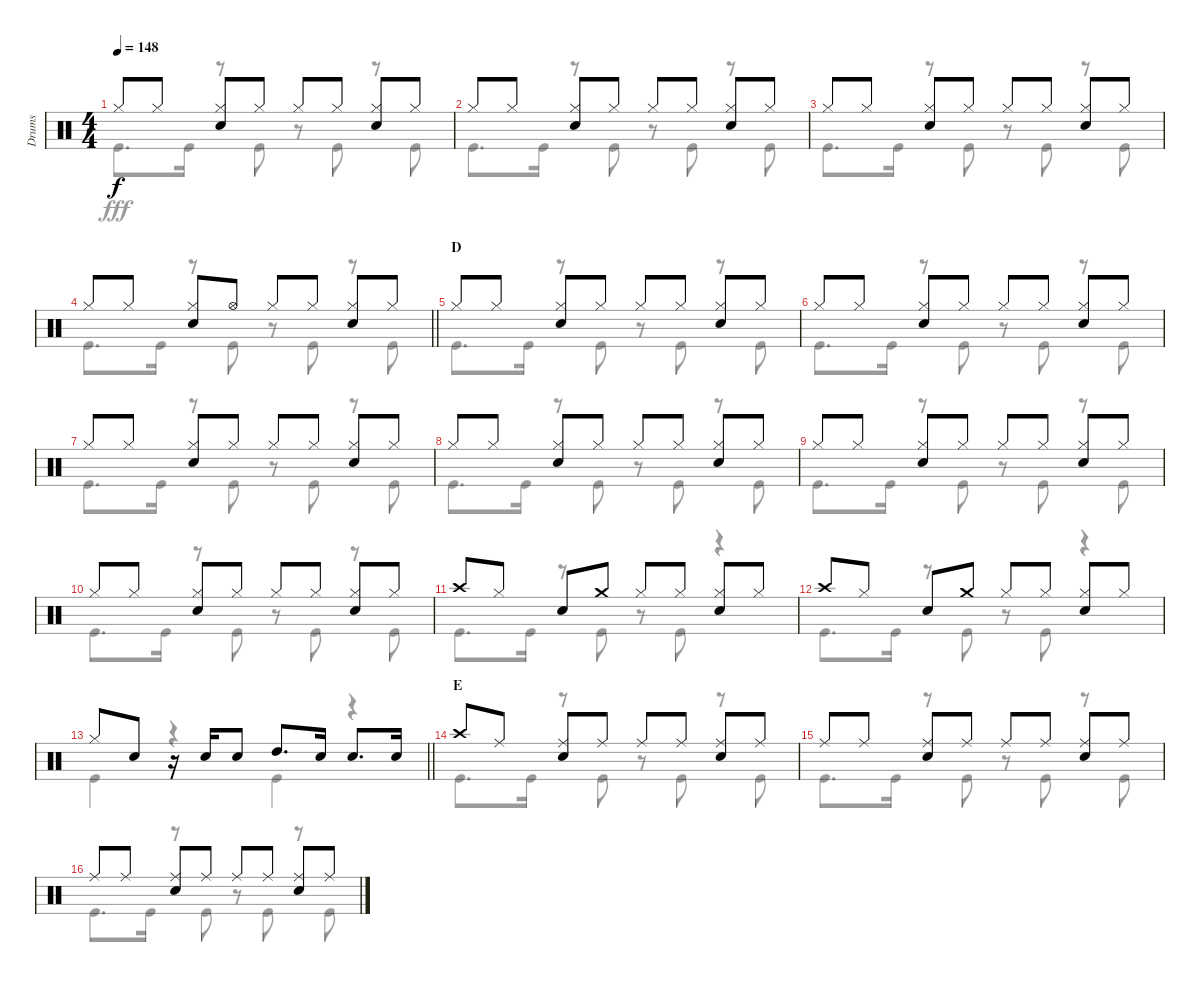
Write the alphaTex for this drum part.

\track ("Drums" "Drums") {instrument percussion}
\staff {score}
\articulation defaults
\voice
\ts (4 4)
\tempo 148
\clef neutral
\ks c "Hi-Hat (closed)".8{dy f} "Hi-Hat (closed)".8
("Hi-Hat (closed)" "Snare (hit) 2").8 "Hi-Hat (closed)".8 "Hi-Hat (closed)".8 "Hi-Hat (closed)".8 ("Hi-Hat (closed)" "Snare (hit) 2").8 "Hi-Hat (closed)".8 |
"Hi-Hat (closed)".8 "Hi-Hat (closed)".8 ("Hi-Hat (closed)" "Snare (hit) 2").8 "Hi-Hat (closed)".8 "Hi-Hat (closed)".8 "Hi-Hat (closed)".8 ("Hi-Hat (closed)" "Snare (hit) 2").8 "Hi-Hat (closed)".8 |
"Hi-Hat (closed)".8 "Hi-Hat (closed)".8 ("Hi-Hat (closed)" "Snare (hit) 2").8 "Hi-Hat (closed)".8 "Hi-Hat (closed)".8 "Hi-Hat (closed)".8 ("Hi-Hat (closed)" "Snare (hit) 2").8 "Hi-Hat (closed)".8 |
\barLineRight lightlight "Hi-Hat (closed)".8 "Hi-Hat (closed)".8
("Hi-Hat (closed)" "Snare (hit) 2").8 "Hi-Hat (open)".8 "Hi-Hat (closed)".8 "Hi-Hat (closed)".8 ("Hi-Hat (closed)" "Snare (hit) 2").8 "Hi-Hat (closed)".8 |
\section ("" "D")
"Hi-Hat (closed)".8 "Hi-Hat (closed)".8 ("Hi-Hat (closed)" "Snare (hit) 2").8 "Hi-Hat (closed)".8 "Hi-Hat (closed)".8 "Hi-Hat (closed)".8 ("Hi-Hat (closed)" "Snare (hit) 2").8 "Hi-Hat (closed)".8 |
"Hi-Hat (closed)".8 "Hi-Hat (closed)".8 ("Hi-Hat (closed)" "Snare (hit) 2").8 "Hi-Hat (closed)".8 "Hi-Hat (closed)".8 "Hi-Hat (closed)".8 ("Hi-Hat (closed)" "Snare (hit) 2").8 "Hi-Hat (closed)".8 |
"Hi-Hat (closed)".8 "Hi-Hat (closed)".8 ("Hi-Hat (closed)" "Snare (hit) 2").8 "Hi-Hat (closed)".8 "Hi-Hat (closed)".8 "Hi-Hat (closed)".8 ("Hi-Hat (closed)" "Snare (hit) 2").8 "Hi-Hat (closed)".8 |
"Hi-Hat (closed)".8 "Hi-Hat (closed)".8 ("Hi-Hat (closed)" "Snare (hit) 2").8 "Hi-Hat (closed)".8 "Hi-Hat (closed)".8 "Hi-Hat (closed)".8 ("Hi-Hat (closed)" "Snare (hit) 2").8 "Hi-Hat (closed)".8 |
"Hi-Hat (closed)".8 "Hi-Hat (closed)".8 ("Hi-Hat (closed)" "Snare (hit) 2").8 "Hi-Hat (closed)".8 "Hi-Hat (closed)".8 "Hi-Hat (closed)".8 ("Hi-Hat (closed)" "Snare (hit) 2").8 "Hi-Hat (closed)".8 |
"Hi-Hat (closed)".8 "Hi-Hat (closed)".8 ("Hi-Hat (closed)" "Snare (hit) 2").8 "Hi-Hat (closed)".8 "Hi-Hat (closed)".8 "Hi-Hat (closed)".8 ("Hi-Hat (closed)" "Snare (hit) 2").8 "Hi-Hat (closed)".8 |
"Crash high (hit)".8 "Hi-Hat (closed)".8 "Snare (hit) 2".8 "Crash medium (hit)".8 "Hi-Hat (closed)".8 "Hi-Hat (closed)".8 ("Hi-Hat (closed)" "Snare (hit) 2").8 "Hi-Hat (closed)".8 |
"Crash high (hit)".8 "Hi-Hat (closed)".8 "Snare (hit) 2".8 "Crash medium (hit)".8 "Hi-Hat (closed)".8 "Hi-Hat (closed)".8 ("Hi-Hat (closed)" "Snare (hit) 2").8 "Hi-Hat (closed)".8 |
\barLineRight lightlight "Hi-Hat (closed)".8 "Snare (hit) 2".8
r.16 "Snare (hit) 2".16 "Snare (hit) 2".8 "High Tom (hit)".8{d} "Snare (hit) 2".16 "Snare (hit) 2".8{d} "Snare (hit) 2".16 |
\section ("" "E")
"Crash high (hit)".8 "Ride (middle)".8 ("Ride (middle)" "Snare (hit) 2").8 "Ride (middle)".8 "Ride (middle)".8 "Ride (middle)".8 ("Ride (middle)" "Snare (hit) 2").8 "Ride (middle)".8 |
"Ride (middle)".8 "Ride (middle)".8 ("Ride (middle)" "Snare (hit) 2").8 "Ride (middle)".8 "Ride (middle)".8 "Ride (middle)".8 ("Ride (middle)" "Snare (hit) 2").8 "Ride (middle)".8 |
"Ride (middle)".8 "Ride (middle)".8 ("Ride (middle)" "Snare (hit) 2").8 "Ride (middle)".8 "Ride (middle)".8 "Ride (middle)".8 ("Ride (middle)" "Snare (hit) 2").8 "Ride (middle)".8
\voice
\clef neutral
\ottava regular
\simile none
\ks c "Kick (hit)".8{d dy fff} "Kick (hit)".16
r.8 "Kick (hit)".8 r.8 "Kick (hit)".8 r.8 "Kick (hit)".8 |
"Kick (hit)".8{d} "Kick (hit)".16 r.8 "Kick (hit)".8 r.8 "Kick (hit)".8 r.8 "Kick (hit)".8 |
"Kick (hit)".8{d} "Kick (hit)".16 r.8 "Kick (hit)".8 r.8 "Kick (hit)".8 r.8 "Kick (hit)".8 |
\barLineRight lightlight "Kick (hit)".8{d} "Kick (hit)".16
r.8 "Kick (hit)".8 r.8 "Kick (hit)".8 r.8 "Kick (hit)".8 |
"Kick (hit)".8{d} "Kick (hit)".16 r.8 "Kick (hit)".8 r.8 "Kick (hit)".8 r.8 "Kick (hit)".8 |
"Kick (hit)".8{d} "Kick (hit)".16 r.8 "Kick (hit)".8 r.8 "Kick (hit)".8 r.8 "Kick (hit)".8 |
"Kick (hit)".8{d} "Kick (hit)".16 r.8 "Kick (hit)".8 r.8 "Kick (hit)".8 r.8 "Kick (hit)".8 |
"Kick (hit)".8{d} "Kick (hit)".16 r.8 "Kick (hit)".8 r.8 "Kick (hit)".8 r.8 "Kick (hit)".8 |
"Kick (hit)".8{d} "Kick (hit)".16 r.8 "Kick (hit)".8 r.8 "Kick (hit)".8 r.8 "Kick (hit)".8 |
"Kick (hit)".8{d} "Kick (hit)".16 r.8 "Kick (hit)".8 r.8 "Kick (hit)".8 r.8 "Kick (hit)".8 |
"Kick (hit)".8{d} "Kick (hit)".16 r.8 "Kick (hit)".8 r.8 "Kick (hit)".8 r.4 |
"Kick (hit)".8{d} "Kick (hit)".16 r.8 "Kick (hit)".8 r.8 "Kick (hit)".8 r.4 |
\barLineRight lightlight "Kick (hit)".4
r.4 "Kick (hit)".4 r.4 |
"Kick (hit)".8{d} "Kick (hit)".16 r.8 "Kick (hit)".8 r.8 "Kick (hit)".8 r.8 "Kick (hit)".8 |
"Kick (hit)".8{d} "Kick (hit)".16 r.8 "Kick (hit)".8 r.8 "Kick (hit)".8 r.8 "Kick (hit)".8 |
"Kick (hit)".8{d} "Kick (hit)".16 r.8 "Kick (hit)".8 r.8 "Kick (hit)".8 r.8 "Kick (hit)".8
